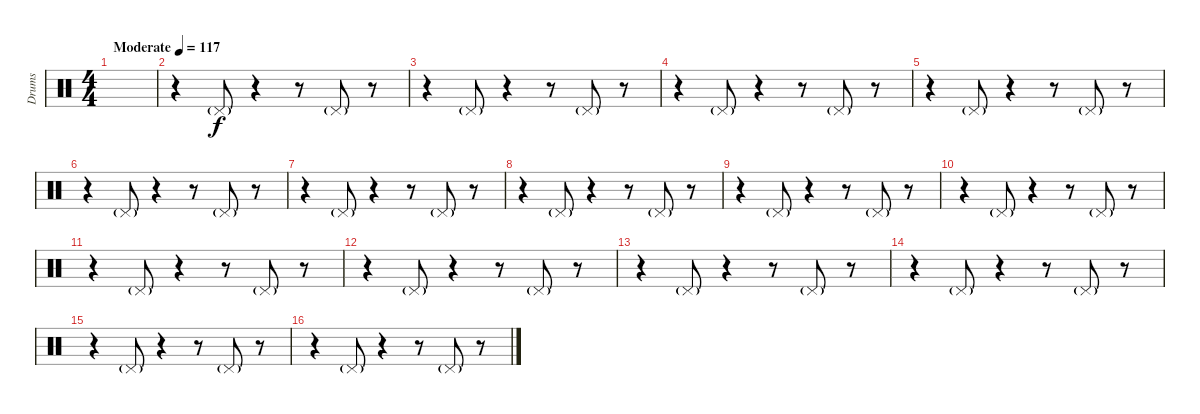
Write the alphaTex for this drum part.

\track ("Drums" "Drums") {instrument percussion}
\staff {score}
\articulation defaults
\ts (4 4)
\tempo (117 "Moderate")
\clef neutral
\ks c
|
r.4 "Pedal Hi-Hat (hit)"{g}.8 r.4 r.8 "Pedal Hi-Hat (hit)"{g}.8 r.8 |
r.4 "Pedal Hi-Hat (hit)"{g}.8 r.4 r.8 "Pedal Hi-Hat (hit)"{g}.8 r.8 |
r.4 "Pedal Hi-Hat (hit)"{g}.8 r.4 r.8 "Pedal Hi-Hat (hit)"{g}.8 r.8 |
r.4 "Pedal Hi-Hat (hit)"{g}.8 r.4 r.8 "Pedal Hi-Hat (hit)"{g}.8 r.8 |
r.4 "Pedal Hi-Hat (hit)"{g}.8 r.4 r.8 "Pedal Hi-Hat (hit)"{g}.8 r.8 |
r.4 "Pedal Hi-Hat (hit)"{g}.8 r.4 r.8 "Pedal Hi-Hat (hit)"{g}.8 r.8 |
r.4 "Pedal Hi-Hat (hit)"{g}.8 r.4 r.8 "Pedal Hi-Hat (hit)"{g}.8 r.8 |
r.4 "Pedal Hi-Hat (hit)"{g}.8 r.4 r.8 "Pedal Hi-Hat (hit)"{g}.8 r.8 |
r.4 "Pedal Hi-Hat (hit)"{g}.8 r.4 r.8 "Pedal Hi-Hat (hit)"{g}.8 r.8 |
r.4 "Pedal Hi-Hat (hit)"{g}.8 r.4 r.8 "Pedal Hi-Hat (hit)"{g}.8 r.8 |
r.4 "Pedal Hi-Hat (hit)"{g}.8 r.4 r.8 "Pedal Hi-Hat (hit)"{g}.8 r.8 |
r.4 "Pedal Hi-Hat (hit)"{g}.8 r.4 r.8 "Pedal Hi-Hat (hit)"{g}.8 r.8 |
r.4 "Pedal Hi-Hat (hit)"{g}.8 r.4 r.8 "Pedal Hi-Hat (hit)"{g}.8 r.8 |
r.4 "Pedal Hi-Hat (hit)"{g}.8 r.4 r.8 "Pedal Hi-Hat (hit)"{g}.8 r.8 |
r.4 "Pedal Hi-Hat (hit)"{g}.8 r.4 r.8 "Pedal Hi-Hat (hit)"{g}.8 r.8
